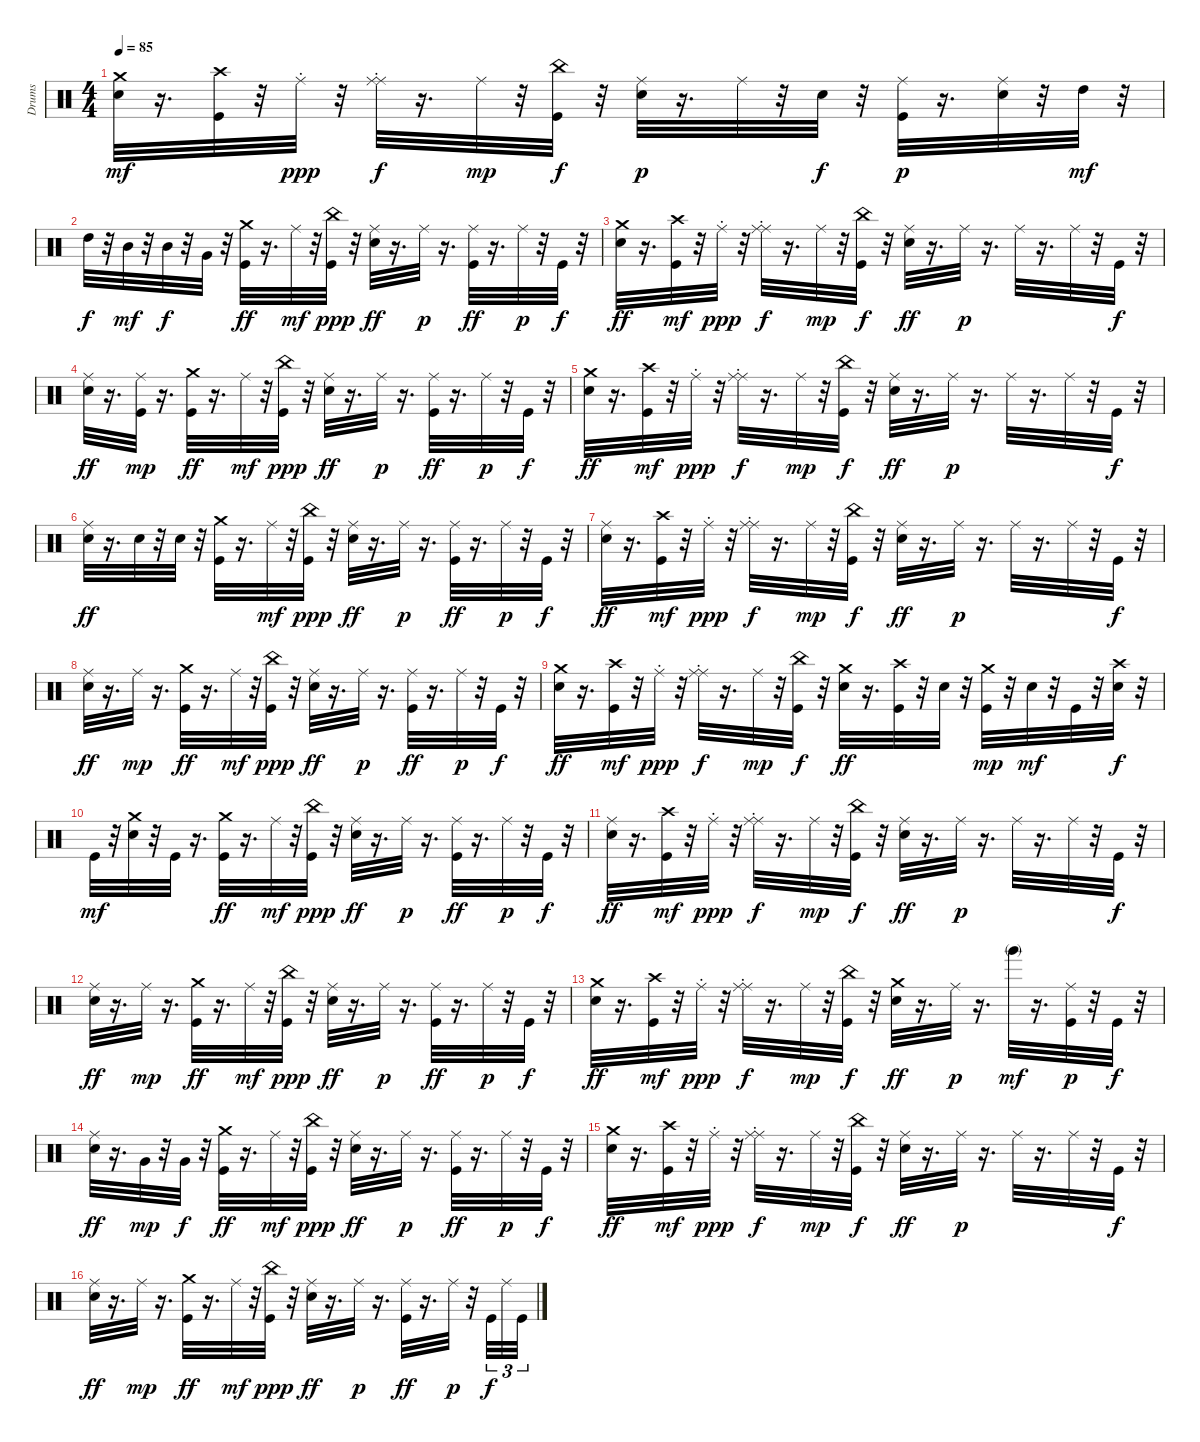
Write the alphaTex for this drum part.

\track ("Drums" "Drums") {instrument percussion}
\staff {score}
\articulation defaults
\ts (4 4)
\tempo 85
\clef neutral
\ks c
("Crash medium (hit)" "Electric Snare (hit)").32{dy mf} r.16{d} ("Crash high (hit)" "Kick (hit)").32 r.32 "Ride (choke)".32{dy ppp} r.32 ("Ride (middle)" "Ride (choke)").32{dy f} r.16{d} "Ride (middle)".32{dy mp} r.32 ("Kick (hit)" "China (choke)").32{dy f} r.32 ("Electric Snare (hit)" "Ride (middle)").32{dy p} r.16{d} "Ride (middle)".32 r.32 "Electric Snare (hit)".32{dy f} r.32 ("Kick (hit)" "Ride (middle)").32{dy p} r.16{d} ("Electric Snare (hit)" "Ride (middle)").32 r.32 "High Tom (hit)".32{dy mf} r.32 |
"High Tom (hit)".32{dy f} r.32 "Mid Tom (hit)".32{dy mf} r.32 "Mid Tom (hit)".32{dy f} r.32 "Very Low Tom (hit)".32 r.32 ("Crash medium (hit)" "Kick (hit)").32{dy ff} r.16{d} "Ride (middle)".32{dy mf} r.32 ("China (choke)" "Kick (hit)").32{dy ppp} r.32 ("Ride (middle)" "Electric Snare (hit)").32{dy ff} r.16{d} "Ride (middle)".32{dy p} r.16{d} ("Ride (middle)" "Kick (hit)").32{dy ff} r.16{d} "Ride (middle)".32{dy p} r.32 "Kick (hit)".32{dy f} r.32 |
("Crash medium (hit)" "Electric Snare (hit)").32{dy ff} r.16{d} ("Crash high (hit)" "Kick (hit)").32{dy mf} r.32 "Ride (choke)".32{dy ppp} r.32 ("Ride (middle)" "Ride (choke)").32{dy f} r.16{d} "Ride (middle)".32{dy mp} r.32 ("China (choke)" "Kick (hit)").32{dy f} r.32 ("Ride (middle)" "Electric Snare (hit)").32{dy ff} r.16{d} "Ride (middle)".32{dy p} r.16{d} "Ride (middle)".32 r.16{d} "Ride (middle)".32 r.32 "Kick (hit)".32{dy f} r.32 |
("Ride (middle)" "Electric Snare (hit)").32{dy ff} r.16{d} ("Kick (hit)" "Ride (middle)").32{dy mp} r.16{d} ("Crash medium (hit)" "Kick (hit)").32{dy ff} r.16{d} "Ride (middle)".32{dy mf} r.32 ("China (choke)" "Kick (hit)").32{dy ppp} r.32 ("Ride (middle)" "Electric Snare (hit)").32{dy ff} r.16{d} "Ride (middle)".32{dy p} r.16{d} ("Ride (middle)" "Kick (hit)").32{dy ff} r.16{d} "Ride (middle)".32{dy p} r.32 "Kick (hit)".32{dy f} r.32 |
("Crash medium (hit)" "Electric Snare (hit)").32{dy ff} r.16{d} ("Crash high (hit)" "Kick (hit)").32{dy mf} r.32 "Ride (choke)".32{dy ppp} r.32 ("Ride (middle)" "Ride (choke)").32{dy f} r.16{d} "Ride (middle)".32{dy mp} r.32 ("China (choke)" "Kick (hit)").32{dy f} r.32 ("Ride (middle)" "Electric Snare (hit)").32{dy ff} r.16{d} "Ride (middle)".32{dy p} r.16{d} "Ride (middle)".32 r.16{d} "Ride (middle)".32 r.32 "Kick (hit)".32{dy f} r.32 |
("Ride (middle)" "Electric Snare (hit)").32{dy ff} r.16{d} "Electric Snare (hit)".32 r.32 "Electric Snare (hit)".32 r.32 ("Crash medium (hit)" "Kick (hit)").32 r.16{d} "Ride (middle)".32{dy mf} r.32 ("China (choke)" "Kick (hit)").32{dy ppp} r.32 ("Ride (middle)" "Electric Snare (hit)").32{dy ff} r.16{d} "Ride (middle)".32{dy p} r.16{d} ("Ride (middle)" "Kick (hit)").32{dy ff} r.16{d} "Ride (middle)".32{dy p} r.32 "Kick (hit)".32{dy f} r.32 |
("Ride (middle)" "Electric Snare (hit)").32{dy ff} r.16{d} ("Crash high (hit)" "Kick (hit)").32{dy mf} r.32 "Ride (choke)".32{dy ppp} r.32 ("Ride (middle)" "Ride (choke)").32{dy f} r.16{d} "Ride (middle)".32{dy mp} r.32 ("China (choke)" "Kick (hit)").32{dy f} r.32 ("Ride (middle)" "Electric Snare (hit)").32{dy ff} r.16{d} "Ride (middle)".32{dy p} r.16{d} "Ride (middle)".32 r.16{d} "Ride (middle)".32 r.32 "Kick (hit)".32{dy f} r.32 |
("Ride (middle)" "Electric Snare (hit)").32{dy ff} r.16{d} "Ride (middle)".32{dy mp} r.16{d} ("Crash medium (hit)" "Kick (hit)").32{dy ff} r.16{d} "Ride (middle)".32{dy mf} r.32 ("China (choke)" "Kick (hit)").32{dy ppp} r.32 ("Ride (middle)" "Electric Snare (hit)").32{dy ff} r.16{d} "Ride (middle)".32{dy p} r.16{d} ("Ride (middle)" "Kick (hit)").32{dy ff} r.16{d} "Ride (middle)".32{dy p} r.32 "Kick (hit)".32{dy f} r.32 |
("Crash medium (hit)" "Electric Snare (hit)").32{dy ff} r.16{d} ("Crash high (hit)" "Kick (hit)").32{dy mf} r.32 "Ride (choke)".32{dy ppp} r.32 ("Ride (middle)" "Ride (choke)").32{dy f} r.16{d} "Ride (middle)".32{dy mp} r.32 ("China (choke)" "Kick (hit)").32{dy f} r.32 ("Crash medium (hit)" "Electric Snare (hit)").32{dy ff} r.16{d} ("Crash high (hit)" "Kick (hit)").32 r.32 "Electric Snare (hit)".32 r.32 ("Crash medium (hit)" "Kick (hit)").32{dy mp} r.32 "Electric Snare (hit)".32{dy mf} r.32 "Kick (hit)".32 r.32 ("Crash high (hit)" "Electric Snare (hit)").32{dy f} r.32 |
"Kick (hit)".32{dy mf} r.32 ("Crash medium (hit)" "Electric Snare (hit)").32 r.32 "Kick (hit)".32 r.16{d} ("Crash medium (hit)" "Kick (hit)").32{dy ff} r.16{d} "Ride (middle)".32{dy mf} r.32 ("China (choke)" "Kick (hit)").32{dy ppp} r.32 ("Ride (middle)" "Electric Snare (hit)").32{dy ff} r.16{d} "Ride (middle)".32{dy p} r.16{d} ("Ride (middle)" "Kick (hit)").32{dy ff} r.16{d} "Ride (middle)".32{dy p} r.32 "Kick (hit)".32{dy f} r.32 |
("Ride (middle)" "Electric Snare (hit)").32{dy ff} r.16{d} ("Crash high (hit)" "Kick (hit)").32{dy mf} r.32 "Ride (choke)".32{dy ppp} r.32 ("Ride (middle)" "Ride (choke)").32{dy f} r.16{d} "Ride (middle)".32{dy mp} r.32 ("China (choke)" "Kick (hit)").32{dy f} r.32 ("Ride (middle)" "Electric Snare (hit)").32{dy ff} r.16{d} "Ride (middle)".32{dy p} r.16{d} "Ride (middle)".32 r.16{d} "Ride (middle)".32 r.32 "Kick (hit)".32{dy f} r.32 |
("Ride (middle)" "Electric Snare (hit)").32{dy ff} r.16{d} "Ride (middle)".32{dy mp} r.16{d} ("Crash medium (hit)" "Kick (hit)").32{dy ff} r.16{d} "Ride (middle)".32{dy mf} r.32 ("China (choke)" "Kick (hit)").32{dy ppp} r.32 ("Ride (middle)" "Electric Snare (hit)").32{dy ff} r.16{d} "Ride (middle)".32{dy p} r.16{d} ("Ride (middle)" "Kick (hit)").32{dy ff} r.16{d} "Ride (middle)".32{dy p} r.32 "Kick (hit)".32{dy f} r.32 |
("Crash medium (hit)" "Electric Snare (hit)").32{dy ff} r.16{d} ("Crash high (hit)" "Kick (hit)").32{dy mf} r.32 "Ride (choke)".32{dy ppp} r.32 ("Ride (middle)" "Ride (choke)").32{dy f} r.16{d} "Ride (middle)".32{dy mp} r.32 ("China (choke)" "Kick (hit)").32{dy f} r.32 ("Crash medium (hit)" "Electric Snare (hit)").32{dy ff} r.16{d} "Ride (middle)".32{dy p} r.16{d} "Hand (mute) 2".32{dy mf} r.16{d} ("Kick (hit)" "Ride (middle)").32{dy p} r.32 "Kick (hit)".32{dy f} r.32 |
("Ride (middle)" "Electric Snare (hit)").32{dy ff} r.16{d} "Very Low Tom (hit)".32{dy mp} r.32 "Very Low Tom (hit)".32{dy f} r.32 ("Crash medium (hit)" "Kick (hit)").32{dy ff} r.16{d} "Ride (middle)".32{dy mf} r.32 ("China (choke)" "Kick (hit)").32{dy ppp} r.32 ("Ride (middle)" "Electric Snare (hit)").32{dy ff} r.16{d} "Ride (middle)".32{dy p} r.16{d} ("Ride (middle)" "Kick (hit)").32{dy ff} r.16{d} "Ride (middle)".32{dy p} r.32 "Kick (hit)".32{dy f} r.32 |
("Crash medium (hit)" "Electric Snare (hit)").32{dy ff} r.16{d} ("Crash high (hit)" "Kick (hit)").32{dy mf} r.32 "Ride (choke)".32{dy ppp} r.32 ("Ride (middle)" "Ride (choke)").32{dy f} r.16{d} "Ride (middle)".32{dy mp} r.32 ("China (choke)" "Kick (hit)").32{dy f} r.32 ("Ride (middle)" "Electric Snare (hit)").32{dy ff} r.16{d} "Ride (middle)".32{dy p} r.16{d} "Ride (middle)".32 r.16{d} "Ride (middle)".32 r.32 "Kick (hit)".32{dy f} r.32 |
("Ride (middle)" "Electric Snare (hit)").32{dy ff} r.16{d} "Ride (middle)".32{dy mp} r.16{d} ("Crash medium (hit)" "Kick (hit)").32{dy ff} r.16{d} "Ride (middle)".32{dy mf} r.32 ("China (choke)" "Kick (hit)").32{dy ppp} r.32 ("Ride (middle)" "Electric Snare (hit)").32{dy ff} r.16{d} "Ride (middle)".32{dy p} r.16{d} ("Ride (middle)" "Kick (hit)").32{dy ff} r.16{d} "Ride (middle)".32{dy p} r.32 "Kick (hit)".32{tu (3 2) dy f} "Cowbell medium (tip)".32{tu (3 2)} "Kick (hit)".32{tu (3 2)}
